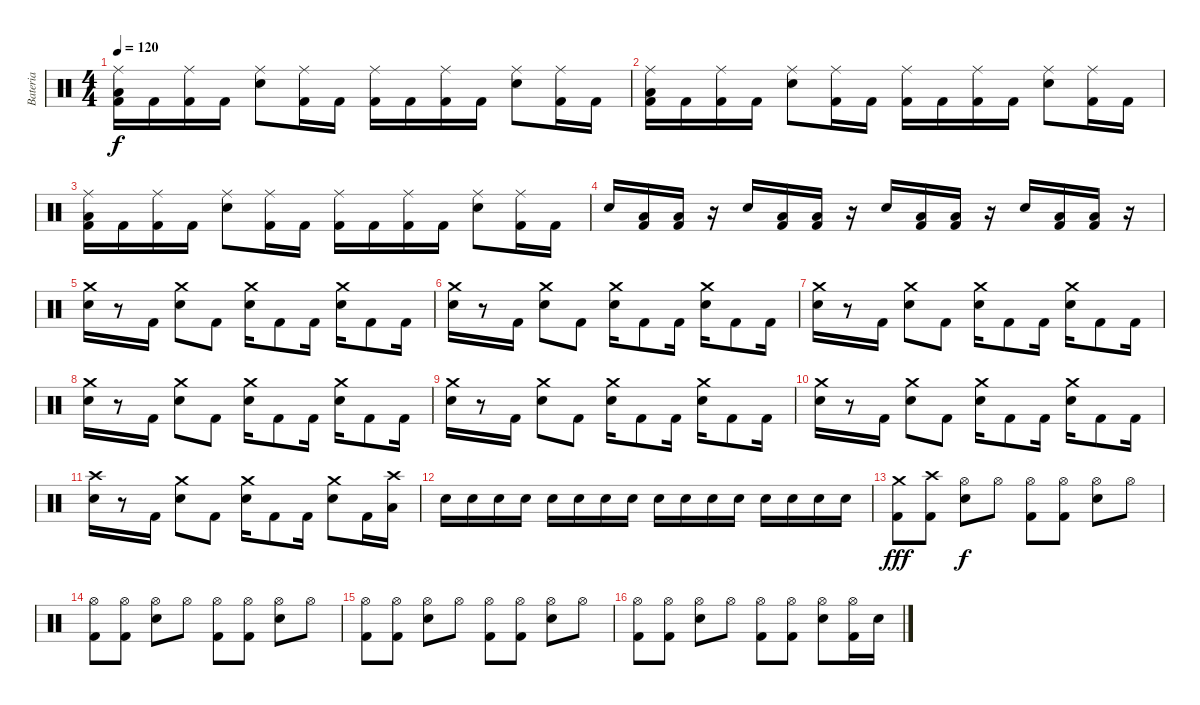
\track ("Bateria" "Bateria") {instrument percussion}
\staff {score}
\articulation defaults
\ts (4 4)
\tempo 120
\clef neutral
\ks c
("Ride (middle)" "Low Tom (hit)" "Kick (hit) 2").16{dy f} "Kick (hit) 2".16 ("Ride (middle)" "Kick (hit) 2").16 "Kick (hit) 2".16 ("Ride (middle)" "Electric Snare (hit)").8 ("Ride (middle)" "Kick (hit) 2").16 "Kick (hit) 2".16 ("Ride (middle)" "Kick (hit) 2").16 "Kick (hit) 2".16 ("Ride (middle)" "Kick (hit) 2").16 "Kick (hit) 2".16 ("Ride (middle)" "Electric Snare (hit)").8 ("Ride (middle)" "Kick (hit) 2").16 "Kick (hit) 2".16 |
("Ride (middle)" "Low Tom (hit)" "Kick (hit) 2").16 "Kick (hit) 2".16 ("Ride (middle)" "Kick (hit) 2").16 "Kick (hit) 2".16 ("Ride (middle)" "Electric Snare (hit)").8 ("Ride (middle)" "Kick (hit) 2").16 "Kick (hit) 2".16 ("Ride (middle)" "Kick (hit) 2").16 "Kick (hit) 2".16 ("Ride (middle)" "Kick (hit) 2").16 "Kick (hit) 2".16 ("Ride (middle)" "Electric Snare (hit)").8 ("Ride (middle)" "Kick (hit) 2").16 "Kick (hit) 2".16 |
("Ride (middle)" "Low Tom (hit)" "Kick (hit) 2").16 "Kick (hit) 2".16 ("Ride (middle)" "Kick (hit) 2").16 "Kick (hit) 2".16 ("Ride (middle)" "Electric Snare (hit)").8 ("Ride (middle)" "Kick (hit) 2").16 "Kick (hit) 2".16 ("Ride (middle)" "Kick (hit) 2").16 "Kick (hit) 2".16 ("Ride (middle)" "Kick (hit) 2").16 "Kick (hit) 2".16 ("Ride (middle)" "Electric Snare (hit)").8 ("Ride (middle)" "Kick (hit) 2").16 "Kick (hit) 2".16 |
"Electric Snare (hit)".16 ("Low Tom (hit)" "Kick (hit) 2").16 ("Low Tom (hit)" "Kick (hit) 2").16 r.16 "Electric Snare (hit)".16 ("Low Tom (hit)" "Kick (hit) 2").16 ("Low Tom (hit)" "Kick (hit) 2").16 r.16 "Electric Snare (hit)".16 ("Low Tom (hit)" "Kick (hit) 2").16 ("Low Tom (hit)" "Kick (hit) 2").16 r.16 "Electric Snare (hit)".16 ("Low Tom (hit)" "Kick (hit) 2").16 ("Low Tom (hit)" "Kick (hit) 2").16 r.16 |
("Crash medium (hit)" "Electric Snare (hit)").16 r.8 "Kick (hit) 2".16 ("Crash medium (hit)" "Electric Snare (hit)").8 "Kick (hit) 2".8 ("Crash medium (hit)" "Electric Snare (hit)").16 "Kick (hit) 2".8 "Kick (hit) 2".16 ("Crash medium (hit)" "Electric Snare (hit)").16 "Kick (hit) 2".8 "Kick (hit) 2".16 |
("Crash medium (hit)" "Electric Snare (hit)").16 r.8 "Kick (hit) 2".16 ("Crash medium (hit)" "Electric Snare (hit)").8 "Kick (hit) 2".8 ("Crash medium (hit)" "Electric Snare (hit)").16 "Kick (hit) 2".8 "Kick (hit) 2".16 ("Crash medium (hit)" "Electric Snare (hit)").16 "Kick (hit) 2".8 "Kick (hit) 2".16 |
("Crash medium (hit)" "Electric Snare (hit)").16 r.8 "Kick (hit) 2".16 ("Crash medium (hit)" "Electric Snare (hit)").8 "Kick (hit) 2".8 ("Crash medium (hit)" "Electric Snare (hit)").16 "Kick (hit) 2".8 "Kick (hit) 2".16 ("Crash medium (hit)" "Electric Snare (hit)").16 "Kick (hit) 2".8 "Kick (hit) 2".16 |
("Crash medium (hit)" "Electric Snare (hit)").16 r.8 "Kick (hit) 2".16 ("Crash medium (hit)" "Electric Snare (hit)").8 "Kick (hit) 2".8 ("Crash medium (hit)" "Electric Snare (hit)").16 "Kick (hit) 2".8 "Kick (hit) 2".16 ("Crash medium (hit)" "Electric Snare (hit)").16 "Kick (hit) 2".8 "Kick (hit) 2".16 |
("Crash medium (hit)" "Electric Snare (hit)").16 r.8 "Kick (hit) 2".16 ("Crash medium (hit)" "Electric Snare (hit)").8 "Kick (hit) 2".8 ("Crash medium (hit)" "Electric Snare (hit)").16 "Kick (hit) 2".8 "Kick (hit) 2".16 ("Crash medium (hit)" "Electric Snare (hit)").16 "Kick (hit) 2".8 "Kick (hit) 2".16 |
("Crash medium (hit)" "Electric Snare (hit)").16 r.8 "Kick (hit) 2".16 ("Crash medium (hit)" "Electric Snare (hit)").8 "Kick (hit) 2".8 ("Crash medium (hit)" "Electric Snare (hit)").16 "Kick (hit) 2".8 "Kick (hit) 2".16 ("Crash medium (hit)" "Electric Snare (hit)").16 "Kick (hit) 2".8 "Kick (hit) 2".16 |
("Crash high (hit)" "Electric Snare (hit)").16 r.8 "Kick (hit) 2".16 ("Crash medium (hit)" "Electric Snare (hit)").8 "Kick (hit) 2".8 ("Crash medium (hit)" "Electric Snare (hit)").16 "Kick (hit) 2".8 "Kick (hit) 2".16 ("Crash medium (hit)" "Electric Snare (hit)").8 "Kick (hit) 2".16 ("Crash high (hit)" "Low Tom (hit)").16 |
"Electric Snare (hit)".16 "Electric Snare (hit)".16 "Electric Snare (hit)".16 "Electric Snare (hit)".16 "Electric Snare (hit)".16 "Electric Snare (hit)".16 "Electric Snare (hit)".16 "Electric Snare (hit)".16 "Electric Snare (hit)".16 "Electric Snare (hit)".16 "Electric Snare (hit)".16 "Electric Snare (hit)".16 "Electric Snare (hit)".16 "Electric Snare (hit)".16 "Electric Snare (hit)".16 "Electric Snare (hit)".16 |
("Crash medium (hit)" "Kick (hit) 2").8{dy fff} ("Crash high (hit)" "Kick (hit) 2").8 ("Hi-Hat (open)" "Electric Snare (hit)").8{dy f} "Hi-Hat (open)".8 ("Hi-Hat (open)" "Kick (hit) 2").8 ("Hi-Hat (open)" "Kick (hit) 2").8 ("Hi-Hat (open)" "Electric Snare (hit)").8 "Hi-Hat (open)".8 |
("Hi-Hat (open)" "Kick (hit) 2").8 ("Hi-Hat (open)" "Kick (hit) 2").8 ("Hi-Hat (open)" "Electric Snare (hit)").8 "Hi-Hat (open)".8 ("Hi-Hat (open)" "Kick (hit) 2").8 ("Hi-Hat (open)" "Kick (hit) 2").8 ("Hi-Hat (open)" "Electric Snare (hit)").8 "Hi-Hat (open)".8 |
("Hi-Hat (open)" "Kick (hit) 2").8 ("Hi-Hat (open)" "Kick (hit) 2").8 ("Hi-Hat (open)" "Electric Snare (hit)").8 "Hi-Hat (open)".8 ("Hi-Hat (open)" "Kick (hit) 2").8 ("Hi-Hat (open)" "Kick (hit) 2").8 ("Hi-Hat (open)" "Electric Snare (hit)").8 "Hi-Hat (open)".8 |
("Hi-Hat (open)" "Kick (hit) 2").8 ("Hi-Hat (open)" "Kick (hit) 2").8 ("Hi-Hat (open)" "Electric Snare (hit)").8 "Hi-Hat (open)".8 ("Hi-Hat (open)" "Kick (hit) 2").8 ("Hi-Hat (open)" "Kick (hit) 2").8 ("Hi-Hat (open)" "Electric Snare (hit)").8 ("Hi-Hat (open)" "Kick (hit) 2").16 "Electric Snare (hit)".16
